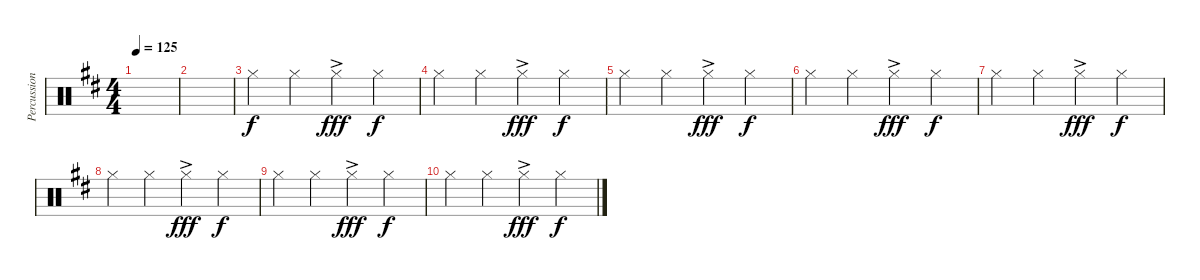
\track ("Percussion" "Percussion") {instrument percussion}
\staff {score}
\articulation defaults
\ts (4 4)
\tempo 125
\clef neutral
\ks d
|
|
"Hi-Hat (closed)".4 "Hi-Hat (closed)".4 "Hi-Hat (closed)"{ac}.4{dy fff} "Hi-Hat (closed)".4{dy f} |
"Hi-Hat (closed)".4 "Hi-Hat (closed)".4 "Hi-Hat (closed)"{ac}.4{dy fff} "Hi-Hat (closed)".4{dy f} |
"Hi-Hat (closed)".4 "Hi-Hat (closed)".4 "Hi-Hat (closed)"{ac}.4{dy fff} "Hi-Hat (closed)".4{dy f} |
"Hi-Hat (closed)".4 "Hi-Hat (closed)".4 "Hi-Hat (closed)"{ac}.4{dy fff} "Hi-Hat (closed)".4{dy f} |
"Hi-Hat (closed)".4 "Hi-Hat (closed)".4 "Hi-Hat (closed)"{ac}.4{dy fff} "Hi-Hat (closed)".4{dy f} |
"Hi-Hat (closed)".4 "Hi-Hat (closed)".4 "Hi-Hat (closed)"{ac}.4{dy fff} "Hi-Hat (closed)".4{dy f} |
"Hi-Hat (closed)".4 "Hi-Hat (closed)".4 "Hi-Hat (closed)"{ac}.4{dy fff} "Hi-Hat (closed)".4{dy f} |
"Hi-Hat (closed)".4 "Hi-Hat (closed)".4 "Hi-Hat (closed)"{ac}.4{dy fff} "Hi-Hat (closed)".4{dy f}
